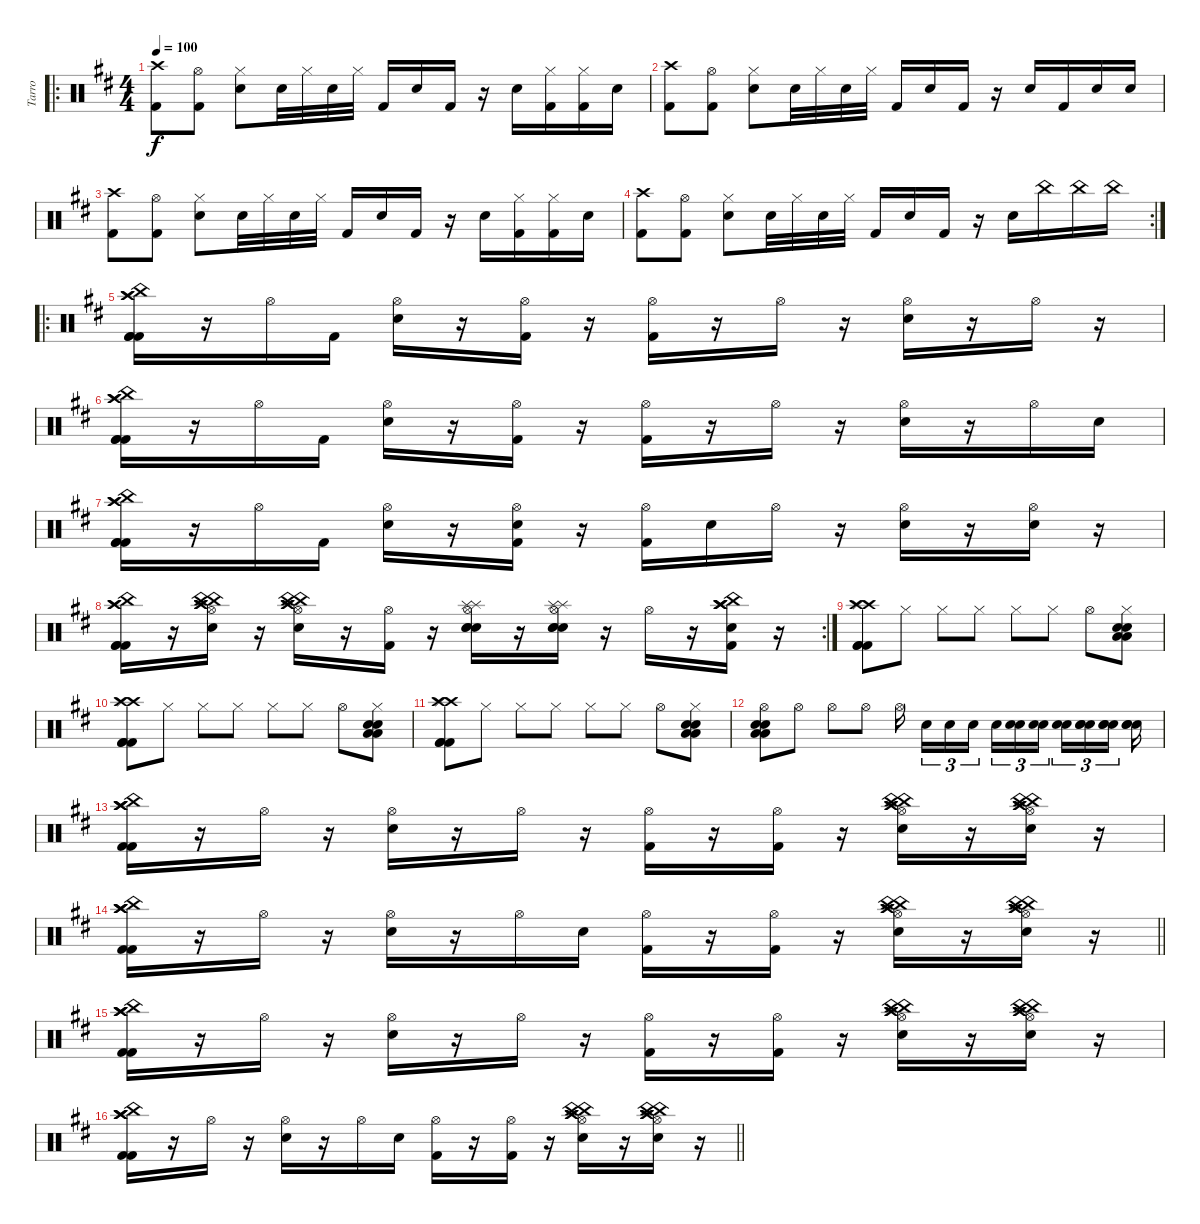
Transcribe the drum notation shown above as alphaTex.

\track ("Tarro" "Tarro") {instrument percussion}
\staff {score}
\articulation defaults
\ro
\ts (4 4)
\tempo 100
\clef neutral
\ks d
("Crash high (hit)" "Kick (hit) 2").8{dy f} ("Hi-Hat (open)" "Kick (hit) 2").8 ("Hi-Hat (closed)" "Snare (hit) 2").8 "Snare (hit) 2".32 "Hi-Hat (closed)".32 "Snare (hit) 2".32 "Hi-Hat (closed)".32 "Kick (hit) 2".16 "Snare (hit) 2".16 "Kick (hit) 2".16 r.16 "Snare (hit) 2".16 ("Kick (hit) 2" "Hi-Hat (closed)").16 ("Kick (hit) 2" "Hi-Hat (closed)").16 "Snare (hit) 2".16 |
("Crash high (hit)" "Kick (hit) 2").8 ("Hi-Hat (open)" "Kick (hit) 2").8 ("Hi-Hat (closed)" "Snare (hit) 2").8 "Snare (hit) 2".32 "Hi-Hat (closed)".32 "Snare (hit) 2".32 "Hi-Hat (closed)".32 "Kick (hit) 2".16 "Snare (hit) 2".16 "Kick (hit) 2".16 r.16 "Snare (hit) 2".16 "Kick (hit) 2".16 "Snare (hit) 2".16 "Snare (hit) 2".16 |
("Crash high (hit)" "Kick (hit) 2").8 ("Hi-Hat (open)" "Kick (hit) 2").8 ("Hi-Hat (closed)" "Snare (hit) 2").8 "Snare (hit) 2".32 "Hi-Hat (closed)".32 "Snare (hit) 2".32 "Hi-Hat (closed)".32 "Kick (hit) 2".16 "Snare (hit) 2".16 "Kick (hit) 2".16 r.16 "Snare (hit) 2".16 ("Kick (hit) 2" "Hi-Hat (closed)").16 ("Kick (hit) 2" "Hi-Hat (closed)").16 "Snare (hit) 2".16 |
\rc 2
("Crash high (hit)" "Kick (hit) 2").8 ("Hi-Hat (open)" "Kick (hit) 2").8 ("Hi-Hat (closed)" "Snare (hit) 2").8 "Snare (hit) 2".32 "Hi-Hat (closed)".32 "Snare (hit) 2".32 "Hi-Hat (closed)".32 "Kick (hit) 2".16 "Snare (hit) 2".16 "Kick (hit) 2".16 r.16 "Snare (hit) 2".16 "China (hit)".16 "China (hit)".16 "China (hit)".16 |
\ro
("Crash high (hit)" "Crash high (hit)" "China (hit)" "Kick (hit) 2" "Kick (hit) 2" "Kick (hit) 2").16 r.16 "Hi-Hat (open)".16 "Kick (hit) 2".16 ("Hi-Hat (open)" "Snare (hit) 2").16 r.16 ("Hi-Hat (open)" "Kick (hit) 2").16 r.16 ("Hi-Hat (open)" "Kick (hit) 2").16 r.16 "Hi-Hat (open)".16 r.16 ("Hi-Hat (open)" "Snare (hit) 2").16 r.16 "Hi-Hat (open)".16 r.16 |
("Crash high (hit)" "Crash high (hit)" "China (hit)" "Kick (hit) 2" "Kick (hit) 2" "Kick (hit) 2").16 r.16 "Hi-Hat (open)".16 "Kick (hit) 2".16 ("Hi-Hat (open)" "Snare (hit) 2").16 r.16 ("Hi-Hat (open)" "Kick (hit) 2").16 r.16 ("Hi-Hat (open)" "Kick (hit) 2").16 r.16 "Hi-Hat (open)".16 r.16 ("Hi-Hat (open)" "Snare (hit) 2").16 r.16 "Hi-Hat (open)".16 "Snare (hit) 2".16 |
("Crash high (hit)" "Crash high (hit)" "China (hit)" "Kick (hit) 2" "Kick (hit) 2" "Kick (hit) 2").16 r.16 "Hi-Hat (open)".16 "Kick (hit) 2".16 ("Hi-Hat (open)" "Snare (hit) 2").16 r.16 ("Hi-Hat (open)" "Snare (hit) 2" "Kick (hit) 2").16 r.16 ("Hi-Hat (open)" "Kick (hit) 2").16 "Snare (hit) 2".16 "Hi-Hat (open)".16 r.16 ("Hi-Hat (open)" "Snare (hit) 2").16 r.16 ("Hi-Hat (open)" "Snare (hit) 2").16 r.16 |
\rc 2
("Crash high (hit)" "Crash high (hit)" "China (hit)" "Kick (hit) 2" "Kick (hit) 2" "Kick (hit) 2").16 r.16 ("Hi-Hat (open)" "Snare (hit) 2" "Crash high (hit)" "Crash high (hit)" "China (hit)" "China (hit)").16 r.16 ("Hi-Hat (open)" "Snare (hit) 2" "Crash high (hit)" "Crash high (hit)" "China (hit)" "China (hit)").16 r.16 ("Hi-Hat (open)" "Kick (hit) 2").16 r.16 ("Hi-Hat (open)" "Snare (hit) 2" "Snare (hit)" "Snare (hit)" "Splash (hit)" "Splash (hit)").16 r.16 ("Hi-Hat (open)" "Snare (hit) 2" "Snare (hit)" "Snare (hit)" "Splash (hit)" "Splash (hit)").16 r.16 "Hi-Hat (open)".16 r.16 ("Kick (hit) 2" "Snare (hit) 2" "Crash high (hit)" "Crash high (hit)" "China (hit)" "Crash high (hit)").16 r.16 |
("Crash high (hit)" "Kick (hit) 2" "Splash (hit)" "Crash high (hit)" "Kick (hit) 2" "Kick (hit) 2").8 "Hi-Hat (closed)".8 "Hi-Hat (closed)".8 "Hi-Hat (closed)".8 "Hi-Hat (closed)".8 "Hi-Hat (closed)".8 "Hi-Hat (open)".8 ("Hi-Hat (closed)" "Snare (hit) 2" "Snare (hit) 2" "Low Floor Tom (hit)" "Low Floor Tom (hit)").8 |
("Crash high (hit)" "Kick (hit) 2" "Splash (hit)" "Crash high (hit)" "Kick (hit) 2" "Kick (hit) 2").8 "Hi-Hat (closed)".8 "Hi-Hat (closed)".8 "Hi-Hat (closed)".8 "Hi-Hat (closed)".8 "Hi-Hat (closed)".8 "Hi-Hat (open)".8 ("Hi-Hat (closed)" "Snare (hit) 2" "Snare (hit) 2" "Low Floor Tom (hit)" "Low Floor Tom (hit)").8 |
("Crash high (hit)" "Kick (hit) 2" "Splash (hit)" "Crash high (hit)" "Kick (hit) 2" "Kick (hit) 2").8 "Hi-Hat (closed)".8 "Hi-Hat (closed)".8 "Hi-Hat (closed)".8 "Hi-Hat (closed)".8 "Hi-Hat (closed)".8 "Hi-Hat (open)".8 ("Hi-Hat (closed)" "Snare (hit) 2" "Snare (hit) 2" "Low Floor Tom (hit)" "Low Floor Tom (hit)").8 |
("Hi-Hat (open)" "Snare (hit) 2" "Snare (hit) 2" "Low Floor Tom (hit)" "Low Floor Tom (hit)").8 "Hi-Hat (open)".8 "Hi-Hat (open)".8{volume 16} "Hi-Hat (open)".8 "Hi-Hat (open)".16 "Snare (hit) 2".16{tu (3 2)} "Snare (hit) 2".16{tu (3 2)} "Snare (hit) 2".16{tu (3 2)} "Snare (hit) 2".16{tu (3 2)} ("Snare (hit) 2" "Snare (hit) 2").16{tu (3 2)} ("Snare (hit) 2" "Snare (hit) 2").16{tu (3 2)} ("Snare (hit) 2" "Snare (hit) 2").16{tu (3 2)} ("Snare (hit) 2" "Snare (hit) 2" "Snare (hit) 2").16{tu (3 2)} ("Snare (hit) 2" "Snare (hit) 2" "Snare (hit) 2").16{tu (3 2)} ("Snare (hit) 2" "Snare (hit) 2" "Snare (hit) 2").16 |
("Crash high (hit)" "China (hit)" "Crash high (hit)" "Crash high (hit)" "Kick (hit) 2" "Kick (hit) 2").16 r.16 "Hi-Hat (open)".16 r.16 ("Hi-Hat (open)" "Snare (hit) 2").16 r.16 "Hi-Hat (open)".16 r.16 ("Hi-Hat (open)" "Kick (hit) 2").16 r.16 ("Hi-Hat (open)" "Kick (hit) 2").16 r.16 ("Hi-Hat (open)" "Snare (hit) 2" "Crash high (hit)" "Crash high (hit)" "China (hit)" "China (hit)").16 r.16 ("Hi-Hat (open)" "Snare (hit) 2" "Crash high (hit)" "Crash high (hit)" "China (hit)" "China (hit)").16 r.16 |
\barLineRight lightlight
("Crash high (hit)" "China (hit)" "Crash high (hit)" "Crash high (hit)" "Kick (hit) 2" "Kick (hit) 2").16 r.16 "Hi-Hat (open)".16 r.16 ("Hi-Hat (open)" "Snare (hit) 2").16 r.16 "Hi-Hat (open)".16 "Snare (hit) 2".16 ("Hi-Hat (open)" "Kick (hit) 2").16 r.16 ("Hi-Hat (open)" "Kick (hit) 2").16 r.16 ("Hi-Hat (open)" "Snare (hit) 2" "Crash high (hit)" "Crash high (hit)" "China (hit)" "China (hit)").16 r.16 ("Hi-Hat (open)" "Snare (hit) 2" "Crash high (hit)" "Crash high (hit)" "China (hit)" "China (hit)").16 r.16 |
("Crash high (hit)" "China (hit)" "Crash high (hit)" "Crash high (hit)" "Kick (hit) 2" "Kick (hit) 2").16 r.16 "Hi-Hat (open)".16 r.16 ("Hi-Hat (open)" "Snare (hit) 2").16 r.16 "Hi-Hat (open)".16 r.16 ("Hi-Hat (open)" "Kick (hit) 2").16 r.16 ("Hi-Hat (open)" "Kick (hit) 2").16 r.16 ("Hi-Hat (open)" "Snare (hit) 2" "Crash high (hit)" "Crash high (hit)" "China (hit)" "China (hit)").16 r.16 ("Hi-Hat (open)" "Snare (hit) 2" "Crash high (hit)" "Crash high (hit)" "China (hit)" "China (hit)").16 r.16 |
\barLineRight lightlight
("Crash high (hit)" "China (hit)" "Crash high (hit)" "Crash high (hit)" "Kick (hit) 2" "Kick (hit) 2").16 r.16 "Hi-Hat (open)".16 r.16 ("Hi-Hat (open)" "Snare (hit) 2").16 r.16 "Hi-Hat (open)".16 "Snare (hit) 2".16 ("Hi-Hat (open)" "Kick (hit) 2").16 r.16 ("Hi-Hat (open)" "Kick (hit) 2").16 r.16 ("Hi-Hat (open)" "Snare (hit) 2" "Crash high (hit)" "Crash high (hit)" "China (hit)" "China (hit)").16 r.16 ("Hi-Hat (open)" "Snare (hit) 2" "Crash high (hit)" "Crash high (hit)" "China (hit)" "China (hit)").16 r.16
